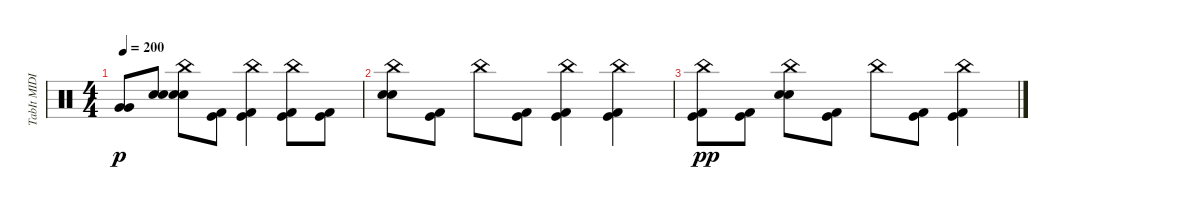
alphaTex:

\track ("TabIt MIDI - Track 4" "TabIt MIDI") {instrument percussion}
\staff {score}
\articulation defaults
\ts (4 4)
\tempo 200
\clef neutral
\ks c
("Very Low Tom (hit)" "Very Low Tom (hit)").8{dy p} ("Electric Snare (hit)" "Electric Snare (hit)").8 ("Electric Snare (hit)" "Electric Snare (hit)" "China (hit)").8 ("Kick (hit)" "Kick (hit) 2").8 ("Kick (hit)" "Kick (hit) 2" "China (hit)").4 ("Kick (hit)" "Kick (hit) 2" "China (hit)").8 ("Kick (hit)" "Kick (hit) 2").8 |
("Electric Snare (hit)" "Electric Snare (hit)" "China (hit)").8 ("Kick (hit)" "Kick (hit) 2").8 "China (hit)".8 ("Kick (hit)" "Kick (hit) 2").8 ("Kick (hit)" "Kick (hit) 2" "China (hit)").4 ("Kick (hit)" "Kick (hit) 2" "China (hit)").4 |
("Kick (hit)" "Kick (hit) 2" "China (hit)").8{dy pp} ("Kick (hit)" "Kick (hit) 2").8 ("Electric Snare (hit)" "Electric Snare (hit)" "China (hit)").8 ("Kick (hit)" "Kick (hit) 2").8 "China (hit)".8 ("Kick (hit)" "Kick (hit) 2").8 ("Kick (hit)" "Kick (hit) 2" "China (hit)").4
